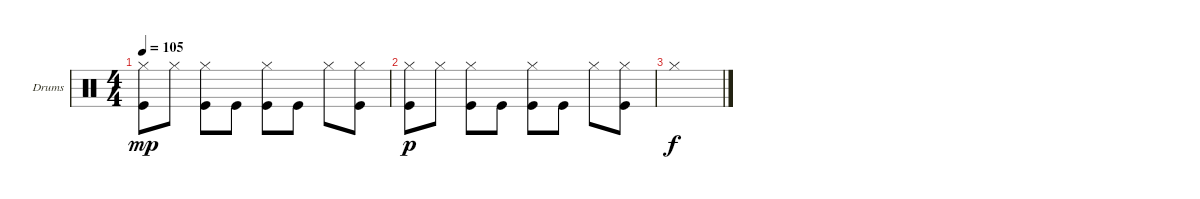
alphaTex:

\defaultSystemsLayout 4
\bracketExtendMode groupsimilarinstruments
\firstSystemTrackNameOrientation horizontal
\otherSystemsTrackNameOrientation horizontal
\track ("Ily" "Drums") {instrument percussion}
\staff {score}
\articulation defaults
\ts (4 4)
\tempo 105
\clef neutral
\ks c
("Hi-Hat (closed)" "Kick (hit)").8{dy mp} "Hi-Hat (closed)".8 ("Hi-Hat (closed)" "Kick (hit)").8 "Kick (hit)".8 ("Hi-Hat (closed)" "Kick (hit)").8 "Kick (hit)".8 "Hi-Hat (closed)".8 ("Kick (hit)" "Hi-Hat (closed)").8 |
("Hi-Hat (closed)" "Kick (hit)").8{dy p} "Hi-Hat (closed)".8 ("Hi-Hat (closed)" "Kick (hit)").8 "Kick (hit)".8 ("Hi-Hat (closed)" "Kick (hit)").8 "Kick (hit)".8 "Hi-Hat (closed)".8 ("Kick (hit)" "Hi-Hat (closed)").8 |
"Hi-Hat (closed)".1{dy f}
